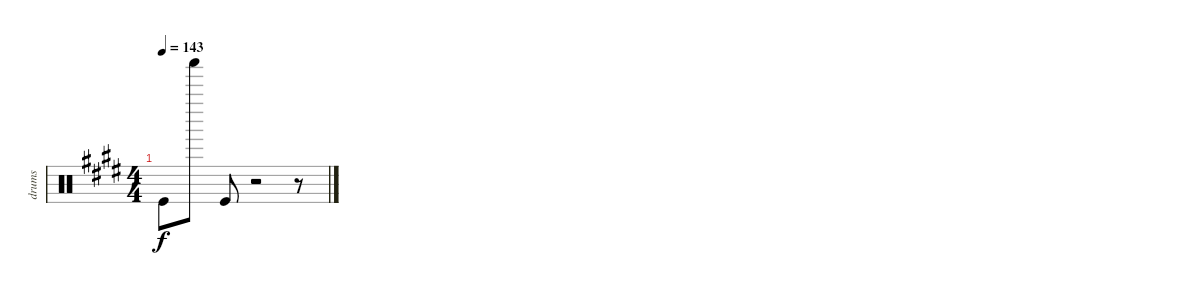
\track ("drums" "drums") {instrument percussion}
\staff {score}
\articulation defaults
\ts (4 4)
\tempo 143
\clef neutral
\ks c#minor "Kick (hit)".8{dy f} "Shaker (hit)".8 "Kick (hit)".8
r.2 r.8
